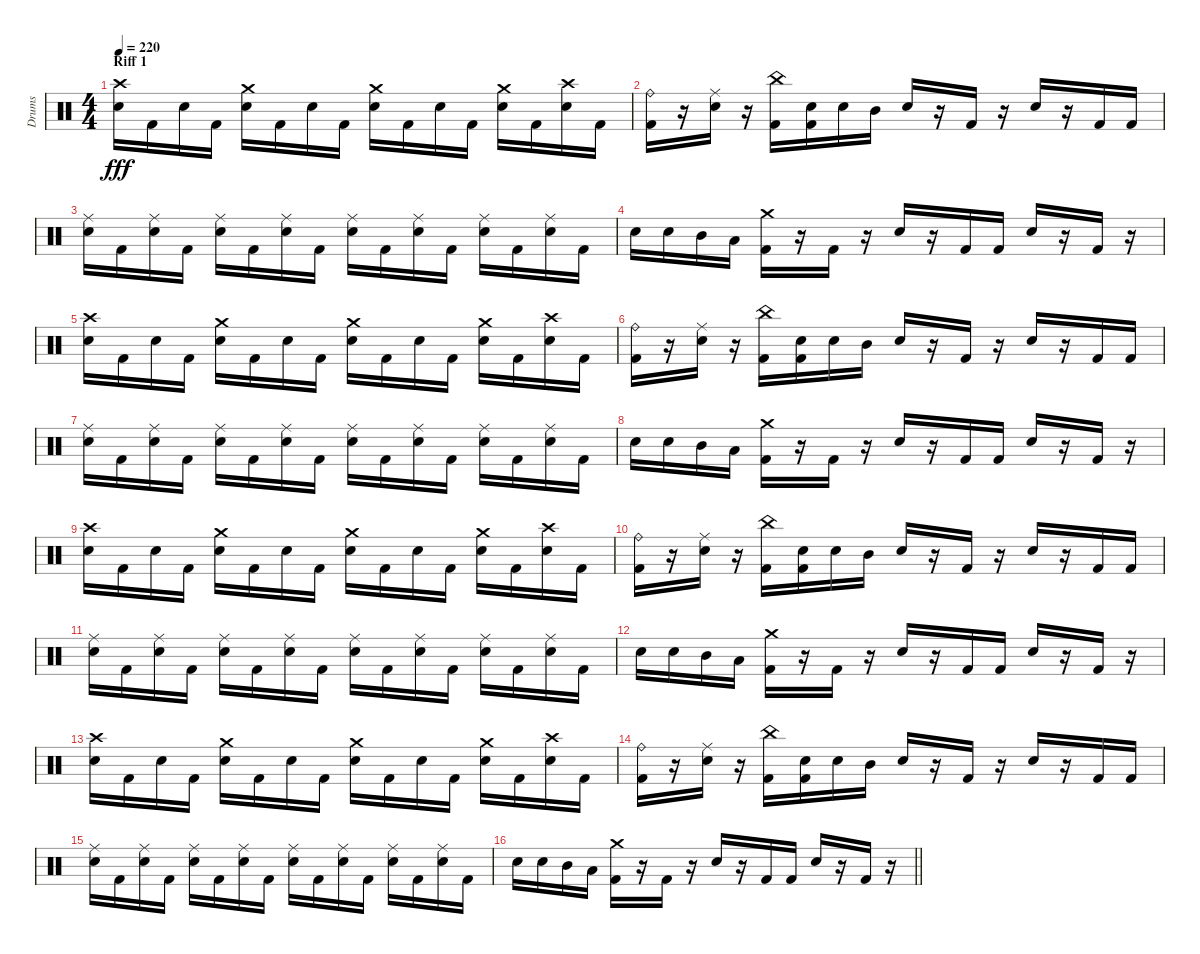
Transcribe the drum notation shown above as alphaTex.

\track ("Drums" "Drums") {instrument percussion}
\staff {score}
\articulation defaults
\ts (4 4)
\section ("" "Riff 1")
\tempo 220
\clef neutral
\ks c
("Crash high (hit)" "Snare (hit) 2").16{dy fff} "Kick (hit) 2".16 "Snare (hit) 2".16 "Kick (hit) 2".16 ("Crash medium (hit)" "Snare (hit) 2").16 "Kick (hit) 2".16 "Snare (hit) 2".16 "Kick (hit) 2".16 ("Crash medium (hit)" "Snare (hit) 2").16 "Kick (hit) 2".16 "Snare (hit) 2".16 "Kick (hit) 2".16 ("Crash medium (hit)" "Snare (hit) 2").16 "Kick (hit) 2".16 ("Crash high (hit)" "Snare (hit) 2").16 "Kick (hit) 2".16 |
("Kick (hit) 2" "Ride (bell)").16 r.16 ("Snare (hit) 2" "Ride (middle)").16 r.16 ("China (hit)" "Kick (hit) 2").16 ("Kick (hit) 2" "Snare (hit) 2").16 "Snare (hit) 2".16 "Mid Tom (hit)".16 "Snare (hit) 2".16 r.16 "Kick (hit) 2".16 r.16 "Snare (hit) 2".16 r.16 "Kick (hit) 2".16 "Kick (hit) 2".16 |
("Snare (hit) 2" "Ride (middle)").16 "Kick (hit) 2".16 ("Snare (hit) 2" "Ride (middle)").16 "Kick (hit) 2".16 ("Snare (hit) 2" "Ride (middle)").16 "Kick (hit) 2".16 ("Snare (hit) 2" "Ride (middle)").16 "Kick (hit) 2".16 ("Snare (hit) 2" "Ride (middle)").16 "Kick (hit) 2".16 ("Snare (hit) 2" "Ride (middle)").16 "Kick (hit) 2".16 ("Snare (hit) 2" "Ride (middle)").16 "Kick (hit) 2".16 ("Snare (hit) 2" "Ride (middle)").16 "Kick (hit) 2".16 |
"Snare (hit) 2".16 "Snare (hit) 2".16 "Mid Tom (hit)".16 "Low Tom (hit)".16 ("Crash medium (hit)" "Kick (hit) 2").16 r.16 "Kick (hit) 2".16 r.16 "Snare (hit) 2".16 r.16 "Kick (hit) 2".16 "Kick (hit) 2".16 "Snare (hit) 2".16 r.16 "Kick (hit) 2".16 r.16 |
("Crash high (hit)" "Snare (hit) 2").16 "Kick (hit) 2".16 "Snare (hit) 2".16 "Kick (hit) 2".16 ("Crash medium (hit)" "Snare (hit) 2").16 "Kick (hit) 2".16 "Snare (hit) 2".16 "Kick (hit) 2".16 ("Crash medium (hit)" "Snare (hit) 2").16 "Kick (hit) 2".16 "Snare (hit) 2".16 "Kick (hit) 2".16 ("Crash medium (hit)" "Snare (hit) 2").16 "Kick (hit) 2".16 ("Crash high (hit)" "Snare (hit) 2").16 "Kick (hit) 2".16 |
("Kick (hit) 2" "Ride (bell)").16 r.16 ("Snare (hit) 2" "Ride (middle)").16 r.16 ("China (hit)" "Kick (hit) 2").16 ("Kick (hit) 2" "Snare (hit) 2").16 "Snare (hit) 2".16 "Mid Tom (hit)".16 "Snare (hit) 2".16 r.16 "Kick (hit) 2".16 r.16 "Snare (hit) 2".16 r.16 "Kick (hit) 2".16 "Kick (hit) 2".16 |
("Snare (hit) 2" "Ride (middle)").16 "Kick (hit) 2".16 ("Snare (hit) 2" "Ride (middle)").16 "Kick (hit) 2".16 ("Snare (hit) 2" "Ride (middle)").16 "Kick (hit) 2".16 ("Snare (hit) 2" "Ride (middle)").16 "Kick (hit) 2".16 ("Snare (hit) 2" "Ride (middle)").16 "Kick (hit) 2".16 ("Snare (hit) 2" "Ride (middle)").16 "Kick (hit) 2".16 ("Snare (hit) 2" "Ride (middle)").16 "Kick (hit) 2".16 ("Snare (hit) 2" "Ride (middle)").16 "Kick (hit) 2".16 |
"Snare (hit) 2".16 "Snare (hit) 2".16 "Mid Tom (hit)".16 "Low Tom (hit)".16 ("Crash medium (hit)" "Kick (hit) 2").16 r.16 "Kick (hit) 2".16 r.16 "Snare (hit) 2".16 r.16 "Kick (hit) 2".16 "Kick (hit) 2".16 "Snare (hit) 2".16 r.16 "Kick (hit) 2".16 r.16 |
("Crash high (hit)" "Snare (hit) 2").16 "Kick (hit) 2".16 "Snare (hit) 2".16 "Kick (hit) 2".16 ("Crash medium (hit)" "Snare (hit) 2").16 "Kick (hit) 2".16 "Snare (hit) 2".16 "Kick (hit) 2".16 ("Crash medium (hit)" "Snare (hit) 2").16 "Kick (hit) 2".16 "Snare (hit) 2".16 "Kick (hit) 2".16 ("Crash medium (hit)" "Snare (hit) 2").16 "Kick (hit) 2".16 ("Crash high (hit)" "Snare (hit) 2").16 "Kick (hit) 2".16 |
("Kick (hit) 2" "Ride (bell)").16 r.16 ("Snare (hit) 2" "Ride (middle)").16 r.16 ("China (hit)" "Kick (hit) 2").16 ("Kick (hit) 2" "Snare (hit) 2").16 "Snare (hit) 2".16 "Mid Tom (hit)".16 "Snare (hit) 2".16 r.16 "Kick (hit) 2".16 r.16 "Snare (hit) 2".16 r.16 "Kick (hit) 2".16 "Kick (hit) 2".16 |
("Snare (hit) 2" "Ride (middle)").16 "Kick (hit) 2".16 ("Snare (hit) 2" "Ride (middle)").16 "Kick (hit) 2".16 ("Snare (hit) 2" "Ride (middle)").16 "Kick (hit) 2".16 ("Snare (hit) 2" "Ride (middle)").16 "Kick (hit) 2".16 ("Snare (hit) 2" "Ride (middle)").16 "Kick (hit) 2".16 ("Snare (hit) 2" "Ride (middle)").16 "Kick (hit) 2".16 ("Snare (hit) 2" "Ride (middle)").16 "Kick (hit) 2".16 ("Snare (hit) 2" "Ride (middle)").16 "Kick (hit) 2".16 |
"Snare (hit) 2".16 "Snare (hit) 2".16 "Mid Tom (hit)".16 "Low Tom (hit)".16 ("Crash medium (hit)" "Kick (hit) 2").16 r.16 "Kick (hit) 2".16 r.16 "Snare (hit) 2".16 r.16 "Kick (hit) 2".16 "Kick (hit) 2".16 "Snare (hit) 2".16 r.16 "Kick (hit) 2".16 r.16 |
("Crash high (hit)" "Snare (hit) 2").16 "Kick (hit) 2".16 "Snare (hit) 2".16 "Kick (hit) 2".16 ("Crash medium (hit)" "Snare (hit) 2").16 "Kick (hit) 2".16 "Snare (hit) 2".16 "Kick (hit) 2".16 ("Crash medium (hit)" "Snare (hit) 2").16 "Kick (hit) 2".16 "Snare (hit) 2".16 "Kick (hit) 2".16 ("Crash medium (hit)" "Snare (hit) 2").16 "Kick (hit) 2".16 ("Crash high (hit)" "Snare (hit) 2").16 "Kick (hit) 2".16 |
("Kick (hit) 2" "Ride (bell)").16 r.16 ("Snare (hit) 2" "Ride (middle)").16 r.16 ("China (hit)" "Kick (hit) 2").16 ("Kick (hit) 2" "Snare (hit) 2").16 "Snare (hit) 2".16 "Mid Tom (hit)".16 "Snare (hit) 2".16 r.16 "Kick (hit) 2".16 r.16 "Snare (hit) 2".16 r.16 "Kick (hit) 2".16 "Kick (hit) 2".16 |
("Snare (hit) 2" "Ride (middle)").16 "Kick (hit) 2".16 ("Snare (hit) 2" "Ride (middle)").16 "Kick (hit) 2".16 ("Snare (hit) 2" "Ride (middle)").16 "Kick (hit) 2".16 ("Snare (hit) 2" "Ride (middle)").16 "Kick (hit) 2".16 ("Snare (hit) 2" "Ride (middle)").16 "Kick (hit) 2".16 ("Snare (hit) 2" "Ride (middle)").16 "Kick (hit) 2".16 ("Snare (hit) 2" "Ride (middle)").16 "Kick (hit) 2".16 ("Snare (hit) 2" "Ride (middle)").16 "Kick (hit) 2".16 |
\barLineRight lightlight "Snare (hit) 2".16 "Snare (hit) 2".16 "Mid Tom (hit)".16 "Low Tom (hit)".16
("Crash medium (hit)" "Kick (hit) 2").16 r.16 "Kick (hit) 2".16 r.16 "Snare (hit) 2".16 r.16 "Kick (hit) 2".16 "Kick (hit) 2".16 "Snare (hit) 2".16 r.16 "Kick (hit) 2".16 r.16
